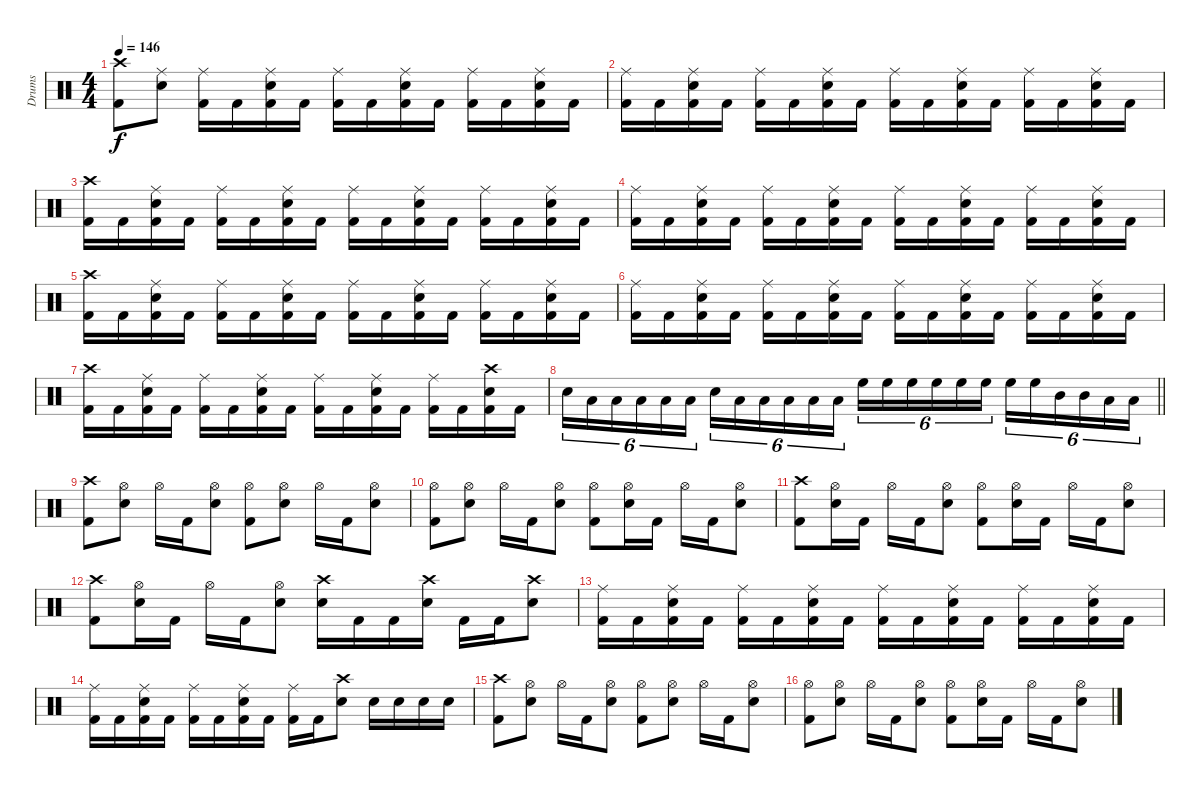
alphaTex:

\track ("Drums" "Drums") {instrument percussion}
\staff {score}
\articulation defaults
\ts (4 4)
\tempo 146
\clef neutral
\ks c
("Crash high (hit)" "Kick (hit) 2").8{dy f} ("Ride (middle)" "Snare (hit) 2").8 ("Ride (middle)" "Kick (hit) 2").16 "Kick (hit) 2".16 ("Ride (middle)" "Snare (hit) 2" "Kick (hit) 2").16 "Kick (hit) 2".16 ("Ride (middle)" "Kick (hit) 2").16 "Kick (hit) 2".16 ("Ride (middle)" "Snare (hit) 2" "Kick (hit) 2").16 "Kick (hit) 2".16 ("Ride (middle)" "Kick (hit) 2").16 "Kick (hit) 2".16 ("Ride (middle)" "Snare (hit) 2" "Kick (hit) 2").16 "Kick (hit) 2".16 |
("Ride (middle)" "Kick (hit) 2").16 "Kick (hit) 2".16 ("Ride (middle)" "Snare (hit) 2" "Kick (hit) 2").16 "Kick (hit) 2".16 ("Ride (middle)" "Kick (hit) 2").16 "Kick (hit) 2".16 ("Ride (middle)" "Snare (hit) 2" "Kick (hit) 2").16 "Kick (hit) 2".16 ("Ride (middle)" "Kick (hit) 2").16 "Kick (hit) 2".16 ("Ride (middle)" "Snare (hit) 2" "Kick (hit) 2").16 "Kick (hit) 2".16 ("Ride (middle)" "Kick (hit) 2").16 "Kick (hit) 2".16 ("Ride (middle)" "Snare (hit) 2" "Kick (hit) 2").16 "Kick (hit) 2".16 |
("Crash high (hit)" "Kick (hit) 2").16 "Kick (hit) 2".16 ("Ride (middle)" "Snare (hit) 2" "Kick (hit) 2").16 "Kick (hit) 2".16 ("Ride (middle)" "Kick (hit) 2").16 "Kick (hit) 2".16 ("Ride (middle)" "Snare (hit) 2" "Kick (hit) 2").16 "Kick (hit) 2".16 ("Ride (middle)" "Kick (hit) 2").16 "Kick (hit) 2".16 ("Ride (middle)" "Snare (hit) 2" "Kick (hit) 2").16 "Kick (hit) 2".16 ("Ride (middle)" "Kick (hit) 2").16 "Kick (hit) 2".16 ("Ride (middle)" "Snare (hit) 2" "Kick (hit) 2").16 "Kick (hit) 2".16 |
("Ride (middle)" "Kick (hit) 2").16 "Kick (hit) 2".16 ("Ride (middle)" "Snare (hit) 2" "Kick (hit) 2").16 "Kick (hit) 2".16 ("Ride (middle)" "Kick (hit) 2").16 "Kick (hit) 2".16 ("Ride (middle)" "Snare (hit) 2" "Kick (hit) 2").16 "Kick (hit) 2".16 ("Ride (middle)" "Kick (hit) 2").16 "Kick (hit) 2".16 ("Ride (middle)" "Snare (hit) 2" "Kick (hit) 2").16 "Kick (hit) 2".16 ("Ride (middle)" "Kick (hit) 2").16 "Kick (hit) 2".16 ("Ride (middle)" "Snare (hit) 2" "Kick (hit) 2").16 "Kick (hit) 2".16 |
("Crash high (hit)" "Kick (hit) 2").16 "Kick (hit) 2".16 ("Ride (middle)" "Snare (hit) 2" "Kick (hit) 2").16 "Kick (hit) 2".16 ("Ride (middle)" "Kick (hit) 2").16 "Kick (hit) 2".16 ("Ride (middle)" "Snare (hit) 2" "Kick (hit) 2").16 "Kick (hit) 2".16 ("Ride (middle)" "Kick (hit) 2").16 "Kick (hit) 2".16 ("Ride (middle)" "Snare (hit) 2" "Kick (hit) 2").16 "Kick (hit) 2".16 ("Ride (middle)" "Kick (hit) 2").16 "Kick (hit) 2".16 ("Ride (middle)" "Snare (hit) 2" "Kick (hit) 2").16 "Kick (hit) 2".16 |
("Ride (middle)" "Kick (hit) 2").16 "Kick (hit) 2".16 ("Ride (middle)" "Snare (hit) 2" "Kick (hit) 2").16 "Kick (hit) 2".16 ("Ride (middle)" "Kick (hit) 2").16 "Kick (hit) 2".16 ("Ride (middle)" "Snare (hit) 2" "Kick (hit) 2").16 "Kick (hit) 2".16 ("Ride (middle)" "Kick (hit) 2").16 "Kick (hit) 2".16 ("Ride (middle)" "Snare (hit) 2" "Kick (hit) 2").16 "Kick (hit) 2".16 ("Ride (middle)" "Kick (hit) 2").16 "Kick (hit) 2".16 ("Ride (middle)" "Snare (hit) 2" "Kick (hit) 2").16 "Kick (hit) 2".16 |
("Crash high (hit)" "Kick (hit) 2").16 "Kick (hit) 2".16 ("Ride (middle)" "Snare (hit) 2" "Kick (hit) 2").16 "Kick (hit) 2".16 ("Ride (middle)" "Kick (hit) 2").16 "Kick (hit) 2".16 ("Ride (middle)" "Snare (hit) 2" "Kick (hit) 2").16 "Kick (hit) 2".16 ("Ride (middle)" "Kick (hit) 2").16 "Kick (hit) 2".16 ("Ride (middle)" "Snare (hit) 2" "Kick (hit) 2").16 "Kick (hit) 2".16 ("Ride (middle)" "Kick (hit) 2").16 "Kick (hit) 2".16 ("Crash high (hit)" "Snare (hit) 2" "Kick (hit) 2").16 "Kick (hit) 2".16 |
\barLineRight lightlight "Snare (hit) 2".16{tu (6 4)} "Low Floor Tom (hit)".16{tu (6 4)} "Low Floor Tom (hit)".16{tu (6 4)} "Low Floor Tom (hit)".16{tu (6 4)} "Low Floor Tom (hit)".16{tu (6 4)} "Low Floor Tom (hit)".16{tu (6 4)} "Snare (hit) 2".16{tu (6 4)} "Low Floor Tom (hit)".16{tu (6 4)} "Low Floor Tom (hit)".16{tu (6 4)} "Low Floor Tom (hit)".16{tu (6 4)} "Low Floor Tom (hit)".16{tu (6 4)} "Low Floor Tom (hit)".16{tu (6 4)} "High Floor Tom (hit)".16{tu (6 4)} "High Floor Tom (hit)".16{tu (6 4)} "High Floor Tom (hit)".16{tu (6 4)} "High Floor Tom (hit)".16{tu (6 4)} "High Floor Tom (hit)".16{tu (6 4)} "High Floor Tom (hit)".16{tu (6 4)} "High Floor Tom (hit)".16{tu (6 4)} "High Floor Tom (hit)".16{tu (6 4)} "Mid Tom (hit)".16{tu (6 4)} "Mid Tom (hit)".16{tu (6 4)} "Low Floor Tom (hit)".16{tu (6 4)} "Low Floor Tom (hit)".16{tu (6 4)}
|
("Crash high (hit)" "Kick (hit) 2").8 ("Hi-Hat (open)" "Snare (hit) 2").8 "Hi-Hat (open)".16 "Kick (hit) 2".16 ("Hi-Hat (open)" "Snare (hit) 2").8 ("Hi-Hat (open)" "Kick (hit) 2").8 ("Hi-Hat (open)" "Snare (hit) 2").8 "Hi-Hat (open)".16 "Kick (hit) 2".16 ("Hi-Hat (open)" "Snare (hit) 2").8 |
("Hi-Hat (open)" "Kick (hit) 2").8 ("Hi-Hat (open)" "Snare (hit) 2").8 "Hi-Hat (open)".16 "Kick (hit) 2".16 ("Hi-Hat (open)" "Snare (hit) 2").8 ("Hi-Hat (open)" "Kick (hit) 2").8 ("Hi-Hat (open)" "Snare (hit) 2").16 "Kick (hit) 2".16 "Hi-Hat (open)".16 "Kick (hit) 2".16 ("Hi-Hat (open)" "Snare (hit) 2").8 |
("Crash high (hit)" "Kick (hit) 2").8 ("Hi-Hat (open)" "Snare (hit) 2").16 "Kick (hit) 2".16 "Hi-Hat (open)".16 "Kick (hit) 2".16 ("Hi-Hat (open)" "Snare (hit) 2").8 ("Hi-Hat (open)" "Kick (hit) 2").8 ("Hi-Hat (open)" "Snare (hit) 2").16 "Kick (hit) 2".16 "Hi-Hat (open)".16 "Kick (hit) 2".16 ("Hi-Hat (open)" "Snare (hit) 2").8 |
("Crash high (hit)" "Kick (hit) 2").8 ("Hi-Hat (open)" "Snare (hit) 2").16 "Kick (hit) 2".16 "Hi-Hat (open)".16 "Kick (hit) 2".16 ("Hi-Hat (open)" "Snare (hit) 2").8 ("Crash high (hit)" "Snare (hit) 2").16 "Kick (hit) 2".16 "Kick (hit) 2".16 ("Crash high (hit)" "Snare (hit) 2").16 "Kick (hit) 2".16 "Kick (hit) 2".16 ("Crash high (hit)" "Snare (hit) 2").8 |
("Ride (middle)" "Kick (hit) 2").16 "Kick (hit) 2".16 ("Ride (middle)" "Snare (hit) 2" "Kick (hit) 2").16 "Kick (hit) 2".16 ("Ride (middle)" "Kick (hit) 2").16 "Kick (hit) 2".16 ("Ride (middle)" "Snare (hit) 2" "Kick (hit) 2").16 "Kick (hit) 2".16 ("Ride (middle)" "Kick (hit) 2").16 "Kick (hit) 2".16 ("Ride (middle)" "Snare (hit) 2" "Kick (hit) 2").16 "Kick (hit) 2".16 ("Ride (middle)" "Kick (hit) 2").16 "Kick (hit) 2".16 ("Ride (middle)" "Snare (hit) 2" "Kick (hit) 2").16 "Kick (hit) 2".16 |
("Ride (middle)" "Kick (hit) 2").16 "Kick (hit) 2".16 ("Ride (middle)" "Snare (hit) 2" "Kick (hit) 2").16 "Kick (hit) 2".16 ("Ride (middle)" "Kick (hit) 2").16 "Kick (hit) 2".16 ("Ride (middle)" "Snare (hit) 2" "Kick (hit) 2").16 "Kick (hit) 2".16 ("Ride (middle)" "Kick (hit) 2").16 "Kick (hit) 2".16 ("Crash high (hit)" "Snare (hit) 2").8 "Snare (hit) 2".16 "Snare (hit) 2".16 "Snare (hit) 2".16 "Snare (hit) 2".16 |
("Crash high (hit)" "Kick (hit) 2").8 ("Hi-Hat (open)" "Snare (hit) 2").8 "Hi-Hat (open)".16 "Kick (hit) 2".16 ("Hi-Hat (open)" "Snare (hit) 2").8 ("Hi-Hat (open)" "Kick (hit) 2").8 ("Hi-Hat (open)" "Snare (hit) 2").8 "Hi-Hat (open)".16 "Kick (hit) 2".16 ("Hi-Hat (open)" "Snare (hit) 2").8 |
("Hi-Hat (open)" "Kick (hit) 2").8 ("Hi-Hat (open)" "Snare (hit) 2").8 "Hi-Hat (open)".16 "Kick (hit) 2".16 ("Hi-Hat (open)" "Snare (hit) 2").8 ("Hi-Hat (open)" "Kick (hit) 2").8 ("Hi-Hat (open)" "Snare (hit) 2").16 "Kick (hit) 2".16 "Hi-Hat (open)".16 "Kick (hit) 2".16 ("Hi-Hat (open)" "Snare (hit) 2").8
